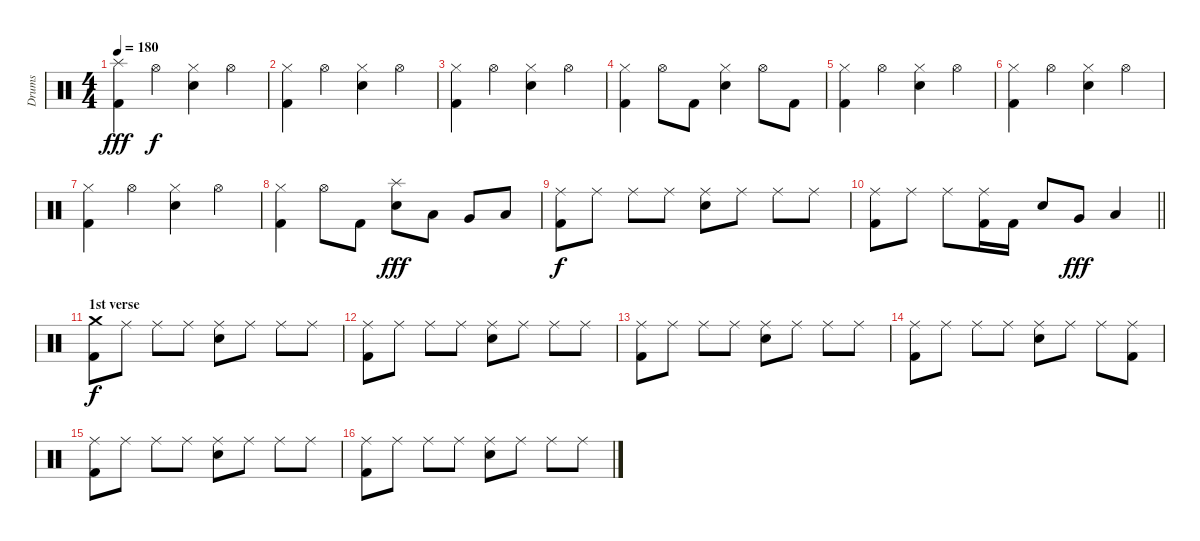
\track ("Drums" "Drums") {instrument percussion}
\staff {score}
\articulation defaults
\ts (4 4)
\tempo 180
\clef neutral
\ks c
("Kick (hit) 2" "Splash (hit)").4{dy fff} "Hi-Hat (open)".4{dy f} ("Hi-Hat (closed)" "Snare (hit) 2").4 "Hi-Hat (open)".4 |
("Kick (hit) 2" "Hi-Hat (closed)").4 "Hi-Hat (open)".4 ("Hi-Hat (closed)" "Snare (hit) 2").4 "Hi-Hat (open)".4 |
("Kick (hit) 2" "Hi-Hat (closed)").4 "Hi-Hat (open)".4 ("Hi-Hat (closed)" "Snare (hit) 2").4 "Hi-Hat (open)".4 |
("Kick (hit) 2" "Hi-Hat (closed)").4 "Hi-Hat (open)".8 "Kick (hit) 2".8 ("Hi-Hat (closed)" "Snare (hit) 2").4 "Hi-Hat (open)".8 "Kick (hit) 2".8 |
("Kick (hit) 2" "Hi-Hat (closed)").4 "Hi-Hat (open)".4 ("Hi-Hat (closed)" "Snare (hit) 2").4 "Hi-Hat (open)".4 |
("Kick (hit) 2" "Hi-Hat (closed)").4 "Hi-Hat (open)".4 ("Hi-Hat (closed)" "Snare (hit) 2").4 "Hi-Hat (open)".4 |
("Kick (hit) 2" "Hi-Hat (closed)").4 "Hi-Hat (open)".4 ("Hi-Hat (closed)" "Snare (hit) 2").4 "Hi-Hat (open)".4 |
("Kick (hit) 2" "Hi-Hat (closed)").4 "Hi-Hat (open)".8 "Kick (hit) 2".8 ("Splash (hit)" "Snare (hit) 2").8{dy fff} "Low Tom (hit)".8 "Very Low Tom (hit)".8 "Low Floor Tom (hit)".8 |
("Kick (hit) 2" "Ride (middle)").8{dy f} "Ride (middle)".8 "Ride (middle)".8 "Ride (middle)".8 ("Ride (middle)" "Snare (hit) 2").8 "Ride (middle)".8 "Ride (middle)".8 "Ride (middle)".8 |
\barLineRight lightlight
("Kick (hit) 2" "Ride (middle)").8 "Ride (middle)".8 "Ride (middle)".8 ("Kick (hit) 2" "Ride (middle)").16 "Kick (hit) 2".16 "Snare (hit) 2".8 "Very Low Tom (hit)".8{dy fff} "Low Floor Tom (hit)".4 |
\section ("" "1st verse")
("Kick (hit) 2" "Crash medium (hit)").8{dy f} "Ride (middle)".8 "Ride (middle)".8 "Ride (middle)".8 ("Ride (middle)" "Snare (hit) 2").8 "Ride (middle)".8 "Ride (middle)".8 "Ride (middle)".8 |
("Kick (hit) 2" "Ride (middle)").8 "Ride (middle)".8 "Ride (middle)".8 "Ride (middle)".8 ("Ride (middle)" "Snare (hit) 2").8 "Ride (middle)".8 "Ride (middle)".8 "Ride (middle)".8 |
("Kick (hit) 2" "Ride (middle)").8 "Ride (middle)".8 "Ride (middle)".8 "Ride (middle)".8 ("Ride (middle)" "Snare (hit) 2").8 "Ride (middle)".8 "Ride (middle)".8 "Ride (middle)".8 |
("Kick (hit) 2" "Ride (middle)").8 "Ride (middle)".8 "Ride (middle)".8 "Ride (middle)".8 ("Ride (middle)" "Snare (hit) 2").8 "Ride (middle)".8 "Ride (middle)".8 ("Kick (hit) 2" "Ride (middle)").8 |
("Kick (hit) 2" "Ride (middle)").8 "Ride (middle)".8 "Ride (middle)".8 "Ride (middle)".8 ("Ride (middle)" "Snare (hit) 2").8 "Ride (middle)".8 "Ride (middle)".8 "Ride (middle)".8 |
("Kick (hit) 2" "Ride (middle)").8 "Ride (middle)".8 "Ride (middle)".8 "Ride (middle)".8 ("Ride (middle)" "Snare (hit) 2").8 "Ride (middle)".8 "Ride (middle)".8 "Ride (middle)".8
